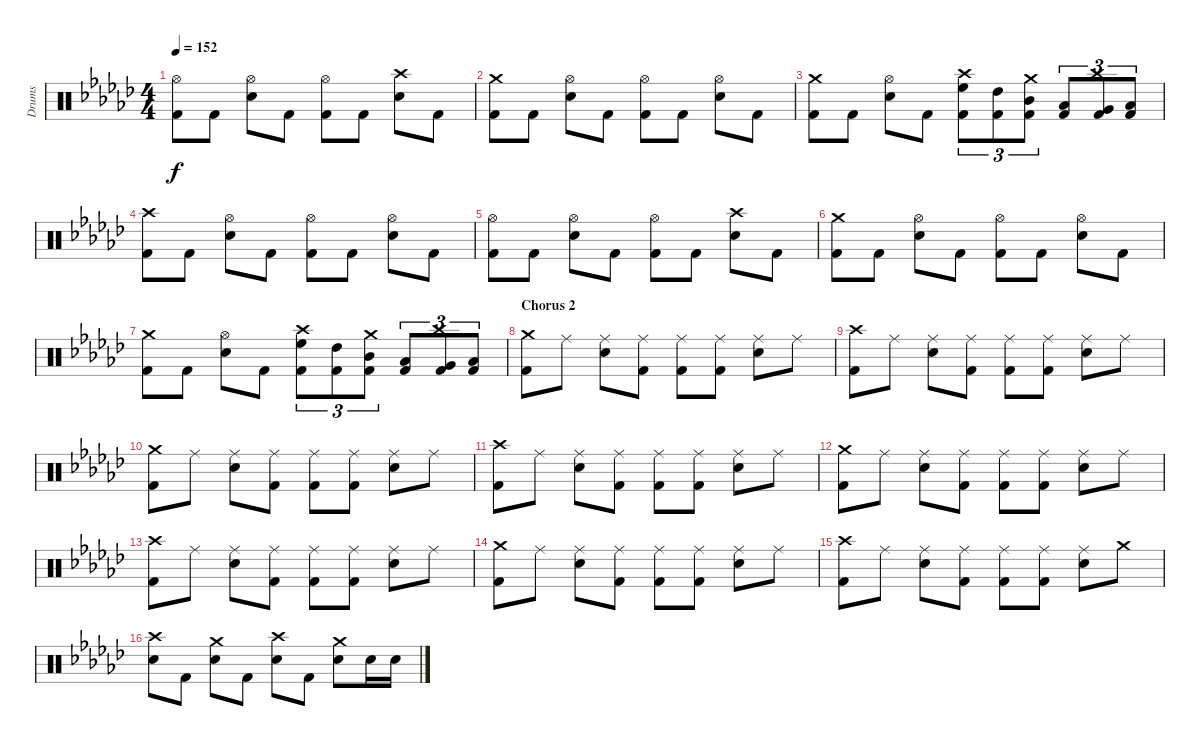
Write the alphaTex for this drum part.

\track ("Drums" "Drums") {instrument percussion}
\staff {score}
\articulation defaults
\ts (4 4)
\tempo 152
\clef neutral
\ks gb
("Hi-Hat (open)" "Kick (hit) 2").8{dy f} "Kick (hit) 2".8 ("Hi-Hat (open)" "Electric Snare (hit)").8 "Kick (hit) 2".8 ("Hi-Hat (open)" "Kick (hit) 2").8 "Kick (hit) 2".8 ("Crash high (hit)" "Electric Snare (hit)").8 "Kick (hit) 2".8 |
("Crash medium (hit)" "Kick (hit) 2").8 "Kick (hit) 2".8 ("Hi-Hat (open)" "Electric Snare (hit)").8 "Kick (hit) 2".8 ("Hi-Hat (open)" "Kick (hit) 2").8 "Kick (hit) 2".8 ("Hi-Hat (open)" "Electric Snare (hit)").8 "Kick (hit) 2".8 |
("Crash medium (hit)" "Kick (hit) 2").8 "Kick (hit) 2".8 ("Hi-Hat (open)" "Electric Snare (hit)").8 "Kick (hit) 2".8 ("Crash high (hit)" "High Floor Tom (hit)" "Kick (hit) 2").8{tu (3 2)} ("High Tom (hit)" "Kick (hit) 2").8{tu (3 2)} ("Crash medium (hit)" "Mid Tom (hit)" "Kick (hit) 2").8{tu (3 2)} ("Low Tom (hit)" "Kick (hit) 2").8{tu (3 2)} ("Crash high (hit)" "Very Low Tom (hit)" "Kick (hit) 2").8{tu (3 2)} ("Low Floor Tom (hit)" "Kick (hit) 2").8{tu (3 2)} |
("Crash high (hit)" "Kick (hit) 2").8 "Kick (hit) 2".8 ("Hi-Hat (open)" "Electric Snare (hit)").8 "Kick (hit) 2".8 ("Hi-Hat (open)" "Kick (hit) 2").8 "Kick (hit) 2".8 ("Hi-Hat (open)" "Electric Snare (hit)").8 "Kick (hit) 2".8 |
("Hi-Hat (open)" "Kick (hit) 2").8 "Kick (hit) 2".8 ("Hi-Hat (open)" "Electric Snare (hit)").8 "Kick (hit) 2".8 ("Hi-Hat (open)" "Kick (hit) 2").8 "Kick (hit) 2".8 ("Crash high (hit)" "Electric Snare (hit)").8 "Kick (hit) 2".8 |
("Crash medium (hit)" "Kick (hit) 2").8 "Kick (hit) 2".8 ("Hi-Hat (open)" "Electric Snare (hit)").8 "Kick (hit) 2".8 ("Hi-Hat (open)" "Kick (hit) 2").8 "Kick (hit) 2".8 ("Hi-Hat (open)" "Electric Snare (hit)").8 "Kick (hit) 2".8 |
("Crash medium (hit)" "Kick (hit) 2").8 "Kick (hit) 2".8 ("Hi-Hat (open)" "Electric Snare (hit)").8 "Kick (hit) 2".8 ("Crash high (hit)" "High Floor Tom (hit)" "Kick (hit) 2").8{tu (3 2)} ("High Tom (hit)" "Kick (hit) 2").8{tu (3 2)} ("Crash medium (hit)" "Mid Tom (hit)" "Kick (hit) 2").8{tu (3 2)} ("Low Tom (hit)" "Kick (hit) 2").8{tu (3 2)} ("Crash high (hit)" "Very Low Tom (hit)" "Kick (hit) 2").8{tu (3 2)} ("Low Floor Tom (hit)" "Kick (hit) 2").8{tu (3 2)} |
\section ("" "Chorus 2")
("Crash medium (hit)" "Kick (hit) 2").8 "Ride (middle)".8 ("Ride (middle)" "Electric Snare (hit)").8 ("Ride (middle)" "Kick (hit) 2").8 ("Ride (middle)" "Kick (hit) 2").8 ("Ride (middle)" "Kick (hit) 2").8 ("Ride (middle)" "Electric Snare (hit)").8 "Ride (middle)".8 |
("Crash high (hit)" "Kick (hit) 2").8 "Ride (middle)".8 ("Ride (middle)" "Electric Snare (hit)").8 ("Ride (middle)" "Kick (hit) 2").8 ("Ride (middle)" "Kick (hit) 2").8 ("Ride (middle)" "Kick (hit) 2").8 ("Ride (middle)" "Electric Snare (hit)").8 "Ride (middle)".8 |
("Crash medium (hit)" "Kick (hit) 2").8 "Ride (middle)".8 ("Ride (middle)" "Electric Snare (hit)").8 ("Ride (middle)" "Kick (hit) 2").8 ("Ride (middle)" "Kick (hit) 2").8 ("Ride (middle)" "Kick (hit) 2").8 ("Ride (middle)" "Electric Snare (hit)").8 "Ride (middle)".8 |
("Crash high (hit)" "Kick (hit) 2").8 "Ride (middle)".8 ("Ride (middle)" "Electric Snare (hit)").8 ("Ride (middle)" "Kick (hit) 2").8 ("Ride (middle)" "Kick (hit) 2").8 ("Ride (middle)" "Kick (hit) 2").8 ("Ride (middle)" "Electric Snare (hit)").8 "Ride (middle)".8 |
("Crash medium (hit)" "Kick (hit) 2").8 "Ride (middle)".8 ("Ride (middle)" "Electric Snare (hit)").8 ("Ride (middle)" "Kick (hit) 2").8 ("Ride (middle)" "Kick (hit) 2").8 ("Ride (middle)" "Kick (hit) 2").8 ("Ride (middle)" "Electric Snare (hit)").8 "Ride (middle)".8 |
("Crash high (hit)" "Kick (hit) 2").8 "Ride (middle)".8 ("Ride (middle)" "Electric Snare (hit)").8 ("Ride (middle)" "Kick (hit) 2").8 ("Ride (middle)" "Kick (hit) 2").8 ("Ride (middle)" "Kick (hit) 2").8 ("Ride (middle)" "Electric Snare (hit)").8 "Ride (middle)".8 |
("Crash medium (hit)" "Kick (hit) 2").8 "Ride (middle)".8 ("Ride (middle)" "Electric Snare (hit)").8 ("Ride (middle)" "Kick (hit) 2").8 ("Ride (middle)" "Kick (hit) 2").8 ("Ride (middle)" "Kick (hit) 2").8 ("Ride (middle)" "Electric Snare (hit)").8 "Ride (middle)".8 |
("Crash high (hit)" "Kick (hit) 2").8 "Ride (middle)".8 ("Ride (middle)" "Electric Snare (hit)").8 ("Ride (middle)" "Kick (hit) 2").8 ("Ride (middle)" "Kick (hit) 2").8 ("Ride (middle)" "Kick (hit) 2").8 ("Ride (middle)" "Electric Snare (hit)").8 "Crash medium (hit)".8 |
("Crash high (hit)" "Electric Snare (hit)").8 "Kick (hit) 2".8 ("Crash medium (hit)" "Electric Snare (hit)").8 "Kick (hit) 2".8 ("Crash high (hit)" "Electric Snare (hit)").8 "Kick (hit) 2".8 ("Crash medium (hit)" "Electric Snare (hit)").8 "Electric Snare (hit)".16 "Electric Snare (hit)".16
